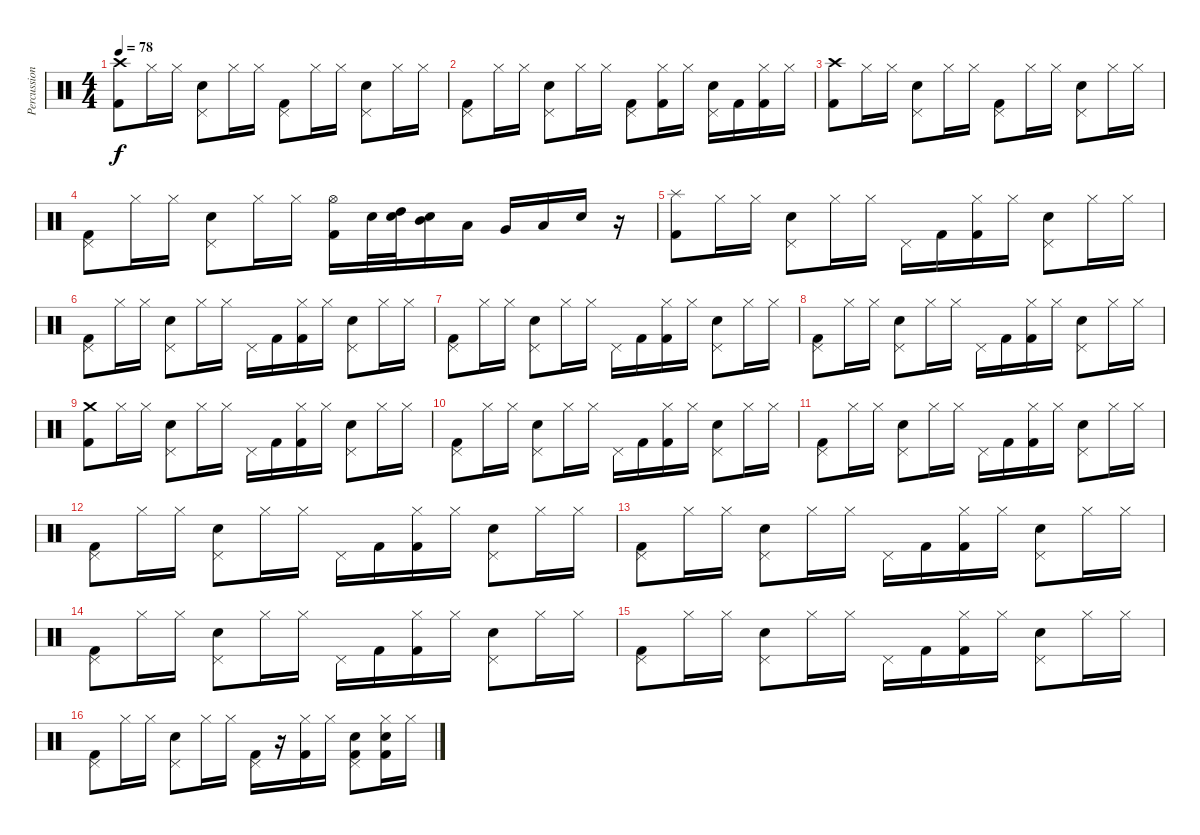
\track ("Percussion" "Percussion") {instrument percussion}
\staff {score}
\articulation defaults
\ts (4 4)
\tempo 78
\clef neutral
\ks c
("Crash high (hit)" "Kick (hit) 2").8{dy f} "Hi-Hat (closed)".16 "Hi-Hat (closed)".16 ("Pedal Hi-Hat (hit)" "Electric Snare (hit)").8 "Hi-Hat (closed)".16 "Hi-Hat (closed)".16 ("Pedal Hi-Hat (hit)" "Kick (hit) 2").8 "Hi-Hat (closed)".16 "Hi-Hat (closed)".16 ("Pedal Hi-Hat (hit)" "Electric Snare (hit)").8 "Hi-Hat (closed)".16 "Hi-Hat (closed)".16 |
("Pedal Hi-Hat (hit)" "Kick (hit) 2").8 "Hi-Hat (closed)".16 "Hi-Hat (closed)".16 ("Pedal Hi-Hat (hit)" "Electric Snare (hit)").8 "Hi-Hat (closed)".16 "Hi-Hat (closed)".16 ("Pedal Hi-Hat (hit)" "Kick (hit) 2").8 ("Hi-Hat (closed)" "Kick (hit) 2").16 "Hi-Hat (closed)".16 ("Pedal Hi-Hat (hit)" "Electric Snare (hit)").16 "Kick (hit) 2".16 ("Hi-Hat (closed)" "Kick (hit) 2").16 "Hi-Hat (closed)".16 |
("Crash high (hit)" "Kick (hit) 2").8 "Hi-Hat (closed)".16 "Hi-Hat (closed)".16 ("Pedal Hi-Hat (hit)" "Electric Snare (hit)").8 "Hi-Hat (closed)".16 "Hi-Hat (closed)".16 ("Pedal Hi-Hat (hit)" "Kick (hit) 2").8 "Hi-Hat (closed)".16 "Hi-Hat (closed)".16 ("Pedal Hi-Hat (hit)" "Electric Snare (hit)").8 "Hi-Hat (closed)".16 "Hi-Hat (closed)".16 |
("Pedal Hi-Hat (hit)" "Kick (hit) 2").8 "Hi-Hat (closed)".16 "Hi-Hat (closed)".16 ("Pedal Hi-Hat (hit)" "Electric Snare (hit)").8 "Hi-Hat (closed)".16 "Hi-Hat (closed)".16 ("Hi-Hat (open)" "Kick (hit) 2").16 "Electric Snare (hit)".32 ("Electric Snare (hit)" "High Tom (hit)").32 ("Electric Snare (hit)" "Mid Tom (hit)").16 "Low Tom (hit)".16 "Very Low Tom (hit)".16 "Low Floor Tom (hit)".16 "Electric Snare (hit)".16 r.16 |
("Splash (hit)" "Kick (hit) 2").8 "Hi-Hat (closed)".16 "Hi-Hat (closed)".16 ("Pedal Hi-Hat (hit)" "Electric Snare (hit)").8 "Hi-Hat (closed)".16 "Hi-Hat (closed)".16 "Pedal Hi-Hat (hit)".16 "Kick (hit) 2".16 ("Hi-Hat (closed)" "Kick (hit) 2").16 "Hi-Hat (closed)".16 ("Pedal Hi-Hat (hit)" "Electric Snare (hit)").8 "Hi-Hat (closed)".16 "Hi-Hat (closed)".16 |
("Pedal Hi-Hat (hit)" "Kick (hit) 2").8 "Hi-Hat (closed)".16 "Hi-Hat (closed)".16 ("Pedal Hi-Hat (hit)" "Electric Snare (hit)").8 "Hi-Hat (closed)".16 "Hi-Hat (closed)".16 "Pedal Hi-Hat (hit)".16 "Kick (hit) 2".16 ("Hi-Hat (closed)" "Kick (hit) 2").16 "Hi-Hat (closed)".16 ("Pedal Hi-Hat (hit)" "Electric Snare (hit)").8 "Hi-Hat (closed)".16 "Hi-Hat (closed)".16 |
("Pedal Hi-Hat (hit)" "Kick (hit) 2").8 "Hi-Hat (closed)".16 "Hi-Hat (closed)".16 ("Pedal Hi-Hat (hit)" "Electric Snare (hit)").8 "Hi-Hat (closed)".16 "Hi-Hat (closed)".16 "Pedal Hi-Hat (hit)".16 "Kick (hit) 2".16 ("Hi-Hat (closed)" "Kick (hit) 2").16 "Hi-Hat (closed)".16 ("Pedal Hi-Hat (hit)" "Electric Snare (hit)").8 "Hi-Hat (closed)".16 "Hi-Hat (closed)".16 |
("Pedal Hi-Hat (hit)" "Kick (hit) 2").8 "Hi-Hat (closed)".16 "Hi-Hat (closed)".16 ("Pedal Hi-Hat (hit)" "Electric Snare (hit)").8 "Hi-Hat (closed)".16 "Hi-Hat (closed)".16 "Pedal Hi-Hat (hit)".16 "Kick (hit) 2".16 ("Hi-Hat (closed)" "Kick (hit) 2").16 "Hi-Hat (closed)".16 ("Pedal Hi-Hat (hit)" "Electric Snare (hit)").8 "Hi-Hat (closed)".16 "Hi-Hat (closed)".16 |
("Crash medium (hit)" "Kick (hit) 2").8 "Hi-Hat (closed)".16 "Hi-Hat (closed)".16 ("Pedal Hi-Hat (hit)" "Electric Snare (hit)").8 "Hi-Hat (closed)".16 "Hi-Hat (closed)".16 "Pedal Hi-Hat (hit)".16 "Kick (hit) 2".16 ("Hi-Hat (closed)" "Kick (hit) 2").16 "Hi-Hat (closed)".16 ("Pedal Hi-Hat (hit)" "Electric Snare (hit)").8 "Hi-Hat (closed)".16 "Hi-Hat (closed)".16 |
("Pedal Hi-Hat (hit)" "Kick (hit) 2").8 "Hi-Hat (closed)".16 "Hi-Hat (closed)".16 ("Pedal Hi-Hat (hit)" "Electric Snare (hit)").8 "Hi-Hat (closed)".16 "Hi-Hat (closed)".16 "Pedal Hi-Hat (hit)".16 "Kick (hit) 2".16 ("Hi-Hat (closed)" "Kick (hit) 2").16 "Hi-Hat (closed)".16 ("Pedal Hi-Hat (hit)" "Electric Snare (hit)").8 "Hi-Hat (closed)".16 "Hi-Hat (closed)".16 |
("Pedal Hi-Hat (hit)" "Kick (hit) 2").8 "Hi-Hat (closed)".16 "Hi-Hat (closed)".16 ("Pedal Hi-Hat (hit)" "Electric Snare (hit)").8 "Hi-Hat (closed)".16 "Hi-Hat (closed)".16 "Pedal Hi-Hat (hit)".16 "Kick (hit) 2".16 ("Hi-Hat (closed)" "Kick (hit) 2").16 "Hi-Hat (closed)".16 ("Pedal Hi-Hat (hit)" "Electric Snare (hit)").8 "Hi-Hat (closed)".16 "Hi-Hat (closed)".16 |
("Pedal Hi-Hat (hit)" "Kick (hit) 2").8 "Hi-Hat (closed)".16 "Hi-Hat (closed)".16 ("Pedal Hi-Hat (hit)" "Electric Snare (hit)").8 "Hi-Hat (closed)".16 "Hi-Hat (closed)".16 "Pedal Hi-Hat (hit)".16 "Kick (hit) 2".16 ("Hi-Hat (closed)" "Kick (hit) 2").16 "Hi-Hat (closed)".16 ("Pedal Hi-Hat (hit)" "Electric Snare (hit)").8 "Hi-Hat (closed)".16 "Hi-Hat (closed)".16 |
("Pedal Hi-Hat (hit)" "Kick (hit) 2").8 "Hi-Hat (closed)".16 "Hi-Hat (closed)".16 ("Pedal Hi-Hat (hit)" "Electric Snare (hit)").8 "Hi-Hat (closed)".16 "Hi-Hat (closed)".16 "Pedal Hi-Hat (hit)".16 "Kick (hit) 2".16 ("Hi-Hat (closed)" "Kick (hit) 2").16 "Hi-Hat (closed)".16 ("Pedal Hi-Hat (hit)" "Electric Snare (hit)").8 "Hi-Hat (closed)".16 "Hi-Hat (closed)".16 |
("Pedal Hi-Hat (hit)" "Kick (hit) 2").8 "Hi-Hat (closed)".16 "Hi-Hat (closed)".16 ("Pedal Hi-Hat (hit)" "Electric Snare (hit)").8 "Hi-Hat (closed)".16 "Hi-Hat (closed)".16 "Pedal Hi-Hat (hit)".16 "Kick (hit) 2".16 ("Hi-Hat (closed)" "Kick (hit) 2").16 "Hi-Hat (closed)".16 ("Pedal Hi-Hat (hit)" "Electric Snare (hit)").8 "Hi-Hat (closed)".16 "Hi-Hat (closed)".16 |
("Pedal Hi-Hat (hit)" "Kick (hit) 2").8 "Hi-Hat (closed)".16 "Hi-Hat (closed)".16 ("Pedal Hi-Hat (hit)" "Electric Snare (hit)").8 "Hi-Hat (closed)".16 "Hi-Hat (closed)".16 "Pedal Hi-Hat (hit)".16 "Kick (hit) 2".16 ("Hi-Hat (closed)" "Kick (hit) 2").16 "Hi-Hat (closed)".16 ("Pedal Hi-Hat (hit)" "Electric Snare (hit)").8 "Hi-Hat (closed)".16 "Hi-Hat (closed)".16 |
("Pedal Hi-Hat (hit)" "Kick (hit) 2").8 "Hi-Hat (closed)".16 "Hi-Hat (closed)".16 ("Pedal Hi-Hat (hit)" "Electric Snare (hit)").8 "Hi-Hat (closed)".16 "Hi-Hat (closed)".16 ("Pedal Hi-Hat (hit)" "Kick (hit) 2").16 r.16 ("Hi-Hat (closed)" "Kick (hit) 2").16 "Hi-Hat (closed)".16 ("Pedal Hi-Hat (hit)" "Electric Snare (hit)" "Kick (hit) 2").8 ("Hi-Hat (closed)" "Electric Snare (hit)" "Kick (hit) 2").16 "Hi-Hat (closed)".16
